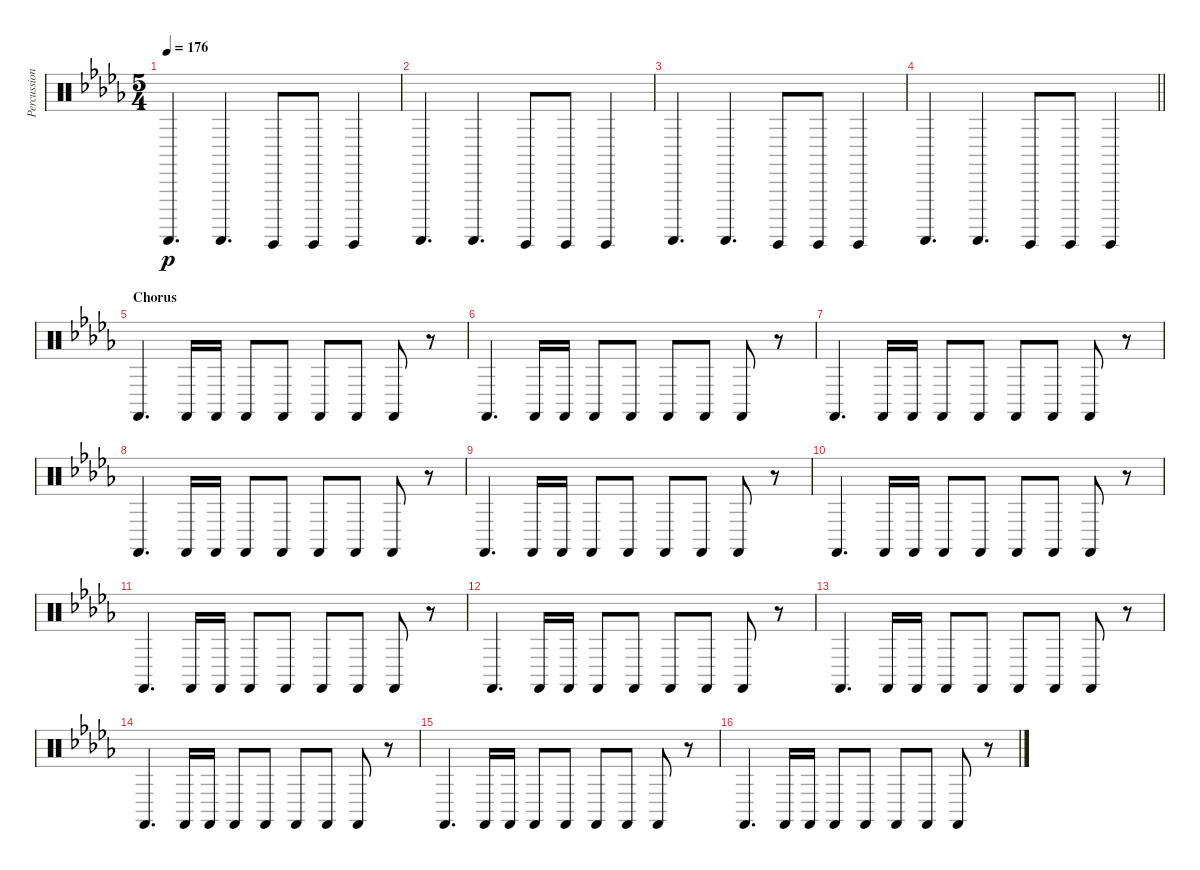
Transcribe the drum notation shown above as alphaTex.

\track ("Percussion" "Percussion") {instrument percussion}
\staff {score}
\articulation defaults
\ts (5 4)
\tempo 176
\clef neutral
\ks db "Guiro (scrap-return)".4{d dy p} "Guiro (scrap-return)".4{d} "Guiro (hit)".8 "Guiro (hit)".8 "Guiro (hit)".4
|
"Guiro (scrap-return)".4{d} "Guiro (scrap-return)".4{d} "Guiro (hit)".8 "Guiro (hit)".8 "Guiro (hit)".4 |
"Guiro (scrap-return)".4{d} "Guiro (scrap-return)".4{d} "Guiro (hit)".8 "Guiro (hit)".8 "Guiro (hit)".4 |
\barLineRight lightlight "Guiro (scrap-return)".4{d} "Guiro (scrap-return)".4{d} "Guiro (hit)".8 "Guiro (hit)".8 "Guiro (hit)".4
|
\section ("" "Chorus")
"Castanets (hit)".4{d} "Castanets (hit)".16 "Castanets (hit)".16 "Castanets (hit)".8 "Castanets (hit)".8 "Castanets (hit)".8 "Castanets (hit)".8 "Castanets (hit)".8 r.8 |
"Castanets (hit)".4{d} "Castanets (hit)".16 "Castanets (hit)".16 "Castanets (hit)".8 "Castanets (hit)".8 "Castanets (hit)".8 "Castanets (hit)".8 "Castanets (hit)".8 r.8 |
"Castanets (hit)".4{d} "Castanets (hit)".16 "Castanets (hit)".16 "Castanets (hit)".8 "Castanets (hit)".8 "Castanets (hit)".8 "Castanets (hit)".8 "Castanets (hit)".8 r.8 |
"Castanets (hit)".4{d} "Castanets (hit)".16 "Castanets (hit)".16 "Castanets (hit)".8 "Castanets (hit)".8 "Castanets (hit)".8 "Castanets (hit)".8 "Castanets (hit)".8 r.8 |
"Castanets (hit)".4{d} "Castanets (hit)".16 "Castanets (hit)".16 "Castanets (hit)".8 "Castanets (hit)".8 "Castanets (hit)".8 "Castanets (hit)".8 "Castanets (hit)".8 r.8 |
"Castanets (hit)".4{d} "Castanets (hit)".16 "Castanets (hit)".16 "Castanets (hit)".8 "Castanets (hit)".8 "Castanets (hit)".8 "Castanets (hit)".8 "Castanets (hit)".8 r.8 |
"Castanets (hit)".4{d} "Castanets (hit)".16 "Castanets (hit)".16 "Castanets (hit)".8 "Castanets (hit)".8 "Castanets (hit)".8 "Castanets (hit)".8 "Castanets (hit)".8 r.8 |
"Castanets (hit)".4{d} "Castanets (hit)".16 "Castanets (hit)".16 "Castanets (hit)".8 "Castanets (hit)".8 "Castanets (hit)".8 "Castanets (hit)".8 "Castanets (hit)".8 r.8 |
"Castanets (hit)".4{d} "Castanets (hit)".16 "Castanets (hit)".16 "Castanets (hit)".8 "Castanets (hit)".8 "Castanets (hit)".8 "Castanets (hit)".8 "Castanets (hit)".8 r.8 |
"Castanets (hit)".4{d} "Castanets (hit)".16 "Castanets (hit)".16 "Castanets (hit)".8 "Castanets (hit)".8 "Castanets (hit)".8 "Castanets (hit)".8 "Castanets (hit)".8 r.8 |
"Castanets (hit)".4{d} "Castanets (hit)".16 "Castanets (hit)".16 "Castanets (hit)".8 "Castanets (hit)".8 "Castanets (hit)".8 "Castanets (hit)".8 "Castanets (hit)".8 r.8 |
"Castanets (hit)".4{d} "Castanets (hit)".16 "Castanets (hit)".16 "Castanets (hit)".8 "Castanets (hit)".8 "Castanets (hit)".8 "Castanets (hit)".8 "Castanets (hit)".8 r.8
